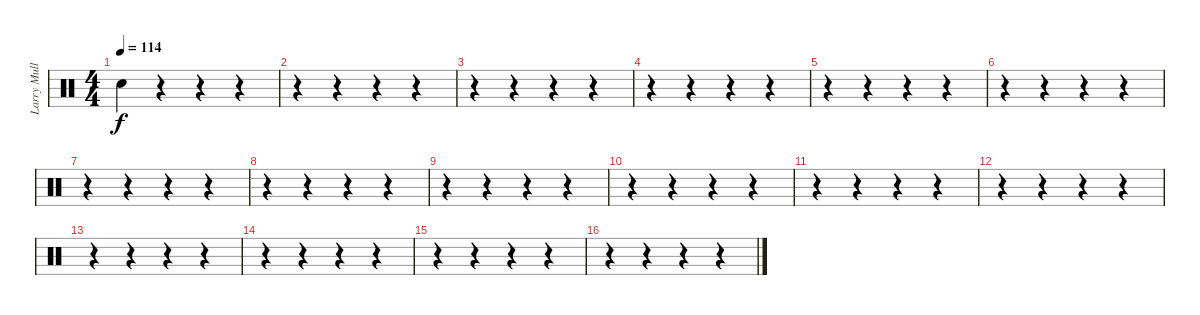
\track ("Larry Mullen Jr suplement for midi" "Larry Mull") {instrument percussion}
\staff {score}
\articulation defaults
\ts (4 4)
\tempo 114
\clef neutral
\ks c "Snare (hit)"{t}.4{dy f}
r.4 r.4 r.4 |
r.4 r.4 r.4 r.4 |
r.4 r.4 r.4 r.4 |
r.4 r.4 r.4 r.4 |
r.4 r.4 r.4 r.4 |
r.4 r.4 r.4 r.4 |
r.4 r.4 r.4 r.4 |
r.4 r.4 r.4 r.4 |
r.4 r.4 r.4 r.4 |
r.4 r.4 r.4 r.4 |
r.4 r.4 r.4 r.4 |
r.4 r.4 r.4 r.4 |
r.4 r.4 r.4 r.4 |
r.4 r.4 r.4 r.4 |
r.4 r.4 r.4 r.4 |
r.4 r.4 r.4 r.4
